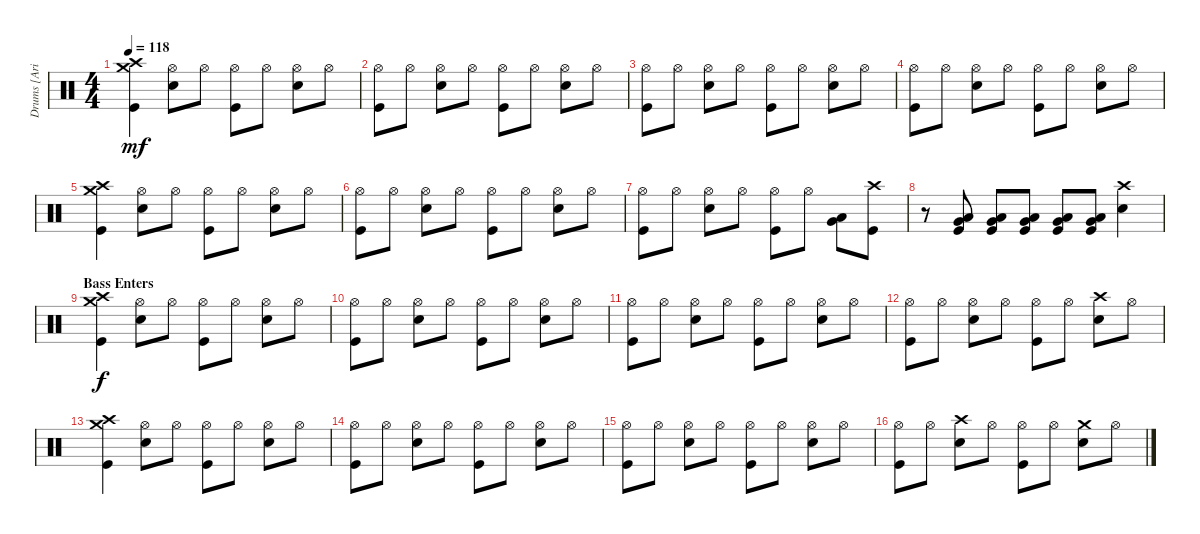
\track ("Drums [Arin Ilejay]" "Drums [Ari") {instrument percussion}
\staff {score}
\articulation defaults
\ts (4 4)
\tempo 118
\clef neutral
\ks c
("Crash high (hit)" "Crash medium (hit)" "Kick (hit)").4{dy mf} ("Hi-Hat (open)" "Snare (hit) 2").8 "Hi-Hat (open)".8 ("Hi-Hat (open)" "Kick (hit)").8 "Hi-Hat (open)".8 ("Hi-Hat (open)" "Snare (hit) 2").8 "Hi-Hat (open)".8 |
("Hi-Hat (open)" "Kick (hit)").8 "Hi-Hat (open)".8 ("Hi-Hat (open)" "Snare (hit) 2").8 "Hi-Hat (open)".8 ("Hi-Hat (open)" "Kick (hit)").8 "Hi-Hat (open)".8 ("Hi-Hat (open)" "Snare (hit) 2").8 "Hi-Hat (open)".8 |
("Hi-Hat (open)" "Kick (hit)").8 "Hi-Hat (open)".8 ("Hi-Hat (open)" "Snare (hit) 2").8 "Hi-Hat (open)".8 ("Hi-Hat (open)" "Kick (hit)").8 "Hi-Hat (open)".8 ("Hi-Hat (open)" "Snare (hit) 2").8 "Hi-Hat (open)".8 |
("Hi-Hat (open)" "Kick (hit)").8 "Hi-Hat (open)".8 ("Hi-Hat (open)" "Snare (hit) 2").8 "Hi-Hat (open)".8 ("Hi-Hat (open)" "Kick (hit)").8 "Hi-Hat (open)".8 ("Hi-Hat (open)" "Snare (hit) 2").8 "Hi-Hat (open)".8 |
("Crash high (hit)" "Crash medium (hit)" "Kick (hit)").4 ("Hi-Hat (open)" "Snare (hit) 2").8 "Hi-Hat (open)".8 ("Hi-Hat (open)" "Kick (hit)").8 "Hi-Hat (open)".8 ("Hi-Hat (open)" "Snare (hit) 2").8 "Hi-Hat (open)".8 |
("Hi-Hat (open)" "Kick (hit)").8 "Hi-Hat (open)".8 ("Hi-Hat (open)" "Snare (hit) 2").8 "Hi-Hat (open)".8 ("Hi-Hat (open)" "Kick (hit)").8 "Hi-Hat (open)".8 ("Hi-Hat (open)" "Snare (hit) 2").8 "Hi-Hat (open)".8 |
("Hi-Hat (open)" "Kick (hit)").8 "Hi-Hat (open)".8 ("Hi-Hat (open)" "Snare (hit) 2").8 "Hi-Hat (open)".8 ("Hi-Hat (open)" "Kick (hit)").8 "Hi-Hat (open)".8 ("Very Low Tom (hit)" "Low Floor Tom (hit)").8 ("Crash high (hit)" "Kick (hit)").8 |
r.8 ("Low Tom (hit)" "Very Low Tom (hit)" "Kick (hit)").8 ("Low Tom (hit)" "Very Low Tom (hit)" "Kick (hit)").8 ("Low Tom (hit)" "Very Low Tom (hit)" "Kick (hit)").8 ("Low Tom (hit)" "Very Low Tom (hit)" "Kick (hit)").8 ("Low Tom (hit)" "Very Low Tom (hit)" "Kick (hit)").8 ("Crash high (hit)" "Snare (hit) 2").4 |
\section ("" "Bass Enters")
("Crash high (hit)" "Crash medium (hit)" "Kick (hit)").4{dy f} ("Hi-Hat (open)" "Snare (hit) 2").8 "Hi-Hat (open)".8 ("Hi-Hat (open)" "Kick (hit)").8 "Hi-Hat (open)".8 ("Hi-Hat (open)" "Snare (hit) 2").8 "Hi-Hat (open)".8 |
("Hi-Hat (open)" "Kick (hit)").8 "Hi-Hat (open)".8 ("Hi-Hat (open)" "Snare (hit) 2").8 "Hi-Hat (open)".8 ("Hi-Hat (open)" "Kick (hit)").8 "Hi-Hat (open)".8 ("Hi-Hat (open)" "Snare (hit) 2").8 "Hi-Hat (open)".8 |
("Hi-Hat (open)" "Kick (hit)").8 "Hi-Hat (open)".8 ("Hi-Hat (open)" "Snare (hit) 2").8 "Hi-Hat (open)".8 ("Hi-Hat (open)" "Kick (hit)").8 "Hi-Hat (open)".8 ("Hi-Hat (open)" "Snare (hit) 2").8 "Hi-Hat (open)".8 |
("Hi-Hat (open)" "Kick (hit)").8 "Hi-Hat (open)".8 ("Hi-Hat (open)" "Snare (hit) 2").8 "Hi-Hat (open)".8 ("Hi-Hat (open)" "Kick (hit)").8 "Hi-Hat (open)".8 ("Crash high (hit)" "Snare (hit) 2").8 "Hi-Hat (open)".8 |
("Crash high (hit)" "Crash medium (hit)" "Kick (hit)").4 ("Hi-Hat (open)" "Snare (hit) 2").8 "Hi-Hat (open)".8 ("Hi-Hat (open)" "Kick (hit)").8 "Hi-Hat (open)".8 ("Hi-Hat (open)" "Snare (hit) 2").8 "Hi-Hat (open)".8 |
("Hi-Hat (open)" "Kick (hit)").8 "Hi-Hat (open)".8 ("Hi-Hat (open)" "Snare (hit) 2").8 "Hi-Hat (open)".8 ("Hi-Hat (open)" "Kick (hit)").8 "Hi-Hat (open)".8 ("Hi-Hat (open)" "Snare (hit) 2").8 "Hi-Hat (open)".8 |
("Hi-Hat (open)" "Kick (hit)").8 "Hi-Hat (open)".8 ("Hi-Hat (open)" "Snare (hit) 2").8 "Hi-Hat (open)".8 ("Hi-Hat (open)" "Kick (hit)").8 "Hi-Hat (open)".8 ("Hi-Hat (open)" "Snare (hit) 2").8 "Hi-Hat (open)".8 |
("Hi-Hat (open)" "Kick (hit)").8 "Hi-Hat (open)".8 ("Crash high (hit)" "Snare (hit) 2").8 "Hi-Hat (open)".8 ("Hi-Hat (open)" "Kick (hit)").8 "Hi-Hat (open)".8 ("Crash medium (hit)" "Snare (hit) 2").8 "Hi-Hat (open)".8
